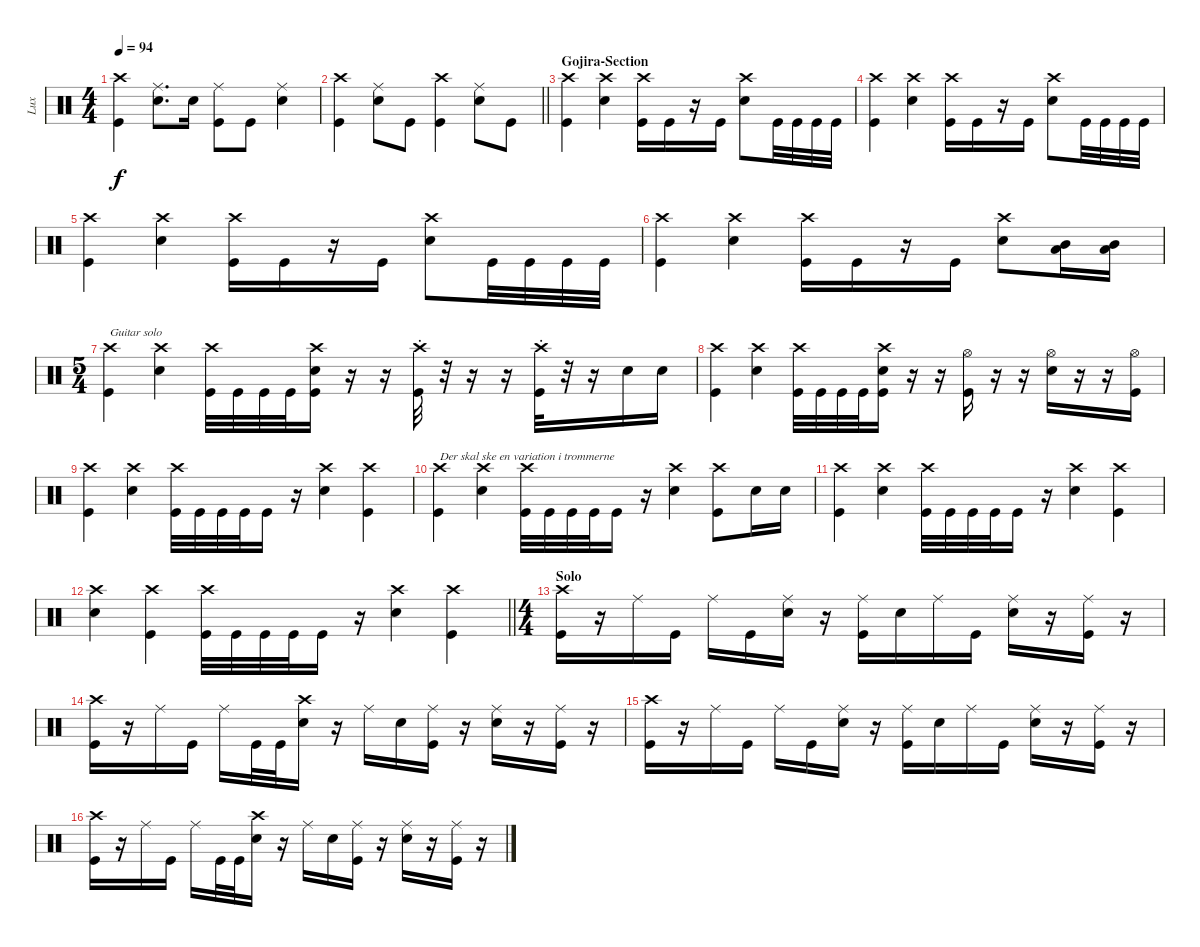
\track ("Lux" "Lux") {instrument percussion}
\staff {score}
\articulation defaults
\ts (4 4)
\tempo 94
\clef neutral
\ks c
("Crash high (hit)" "Kick (hit)").4{dy f} ("Ride (middle)" "Snare (hit) 2").8{d} "Snare (hit) 2".16 ("Ride (middle)" "Kick (hit)").8 "Kick (hit)".8 ("Ride (middle)" "Snare (hit) 2").4 |
\barLineRight lightlight
("Crash high (hit)" "Kick (hit)").4 ("Ride (middle)" "Snare (hit) 2").8 "Kick (hit)".8 ("Crash high (hit)" "Kick (hit)").4 ("Ride (middle)" "Snare (hit) 2").8 "Kick (hit)".8 |
\section ("" "Gojira-Section")
("Crash high (hit)" "Kick (hit)").4 ("Crash high (hit)" "Snare (hit) 2").4 ("Crash high (hit)" "Kick (hit)").16 "Kick (hit)".16 r.16 "Kick (hit)".16 ("Crash high (hit)" "Snare (hit) 2").8 "Kick (hit)".32 "Kick (hit)".32 "Kick (hit)".32 "Kick (hit)".32 |
("Crash high (hit)" "Kick (hit)").4 ("Crash high (hit)" "Snare (hit) 2").4 ("Crash high (hit)" "Kick (hit)").16 "Kick (hit)".16 r.16 "Kick (hit)".16 ("Crash high (hit)" "Snare (hit) 2").8 "Kick (hit)".32 "Kick (hit)".32 "Kick (hit)".32 "Kick (hit)".32 |
("Crash high (hit)" "Kick (hit)").4 ("Crash high (hit)" "Snare (hit) 2").4 ("Crash high (hit)" "Kick (hit)").16 "Kick (hit)".16 r.16 "Kick (hit)".16 ("Crash high (hit)" "Snare (hit) 2").8 "Kick (hit)".32 "Kick (hit)".32 "Kick (hit)".32 "Kick (hit)".32 |
("Crash high (hit)" "Kick (hit)").4 ("Crash high (hit)" "Snare (hit) 2").4 ("Crash high (hit)" "Kick (hit)").16 "Kick (hit)".16 r.16 "Kick (hit)".16 ("Crash high (hit)" "Snare (hit) 2").8 ("Mid Tom (hit)" "Low Tom (hit)").16 ("Mid Tom (hit)" "Low Tom (hit)").16 |
\ts (5 4)
("Crash high (hit)" "Kick (hit)").4{txt "Guitar solo"} ("Crash high (hit)" "Snare (hit) 2").4 ("Crash high (hit)" "Kick (hit)").32 "Kick (hit)".32 "Kick (hit)".32 "Kick (hit)".32 ("Crash high (hit)" "Snare (hit) 2" "Kick (hit)").16 r.16 r.16 ("Crash high (hit)"{st} "Kick (hit)").32 r.32 r.16 r.16 ("Crash high (hit)"{st} "Kick (hit)").32 r.32 r.16 "Snare (hit) 2".16 "Snare (hit) 2".16 |
("Crash high (hit)" "Kick (hit)").4 ("Crash high (hit)" "Snare (hit) 2").4 ("Crash high (hit)" "Kick (hit)").32 "Kick (hit)".32 "Kick (hit)".32 "Kick (hit)".32 ("Crash high (hit)" "Snare (hit) 2" "Kick (hit)").16 r.16 r.16 ("Hi-Hat (open)" "Kick (hit)").16 r.16 r.16 ("Hi-Hat (open)" "Snare (hit) 2").16 r.16 r.16 ("Hi-Hat (open)" "Kick (hit)").16 |
("Crash high (hit)" "Kick (hit)").4 ("Crash high (hit)" "Snare (hit) 2").4 ("Crash high (hit)" "Kick (hit)").32 "Kick (hit)".32 "Kick (hit)".32 "Kick (hit)".32 "Kick (hit)".16 r.16 ("Crash high (hit)" "Snare (hit) 2").4 ("Crash high (hit)" "Kick (hit)").4 |
("Crash high (hit)" "Kick (hit)").4{txt "Der skal ske en variation i trommerne"} ("Crash high (hit)" "Snare (hit) 2").4 ("Crash high (hit)" "Kick (hit)").32 "Kick (hit)".32 "Kick (hit)".32 "Kick (hit)".32 "Kick (hit)".16 r.16 ("Crash high (hit)" "Snare (hit) 2").4 ("Crash high (hit)" "Kick (hit)").8 "Snare (hit) 2".16 "Snare (hit) 2".16 |
("Crash high (hit)" "Kick (hit)").4 ("Crash high (hit)" "Snare (hit) 2").4 ("Crash high (hit)" "Kick (hit)").32 "Kick (hit)".32 "Kick (hit)".32 "Kick (hit)".32 "Kick (hit)".16 r.16 ("Crash high (hit)" "Snare (hit) 2").4 ("Crash high (hit)" "Kick (hit)").4 |
\barLineRight lightlight
("Crash high (hit)" "Snare (hit) 2").4 ("Crash high (hit)" "Kick (hit)").4 ("Crash high (hit)" "Kick (hit)").32 "Kick (hit)".32 "Kick (hit)".32 "Kick (hit)".32 "Kick (hit)".16 r.16 ("Crash high (hit)" "Snare (hit) 2").4 ("Crash high (hit)" "Kick (hit)").4 |
\ts (4 4)
\section ("" "Solo")
("Crash high (hit)" "Kick (hit)").16 r.16 "Ride (middle)".16 "Kick (hit)".16 "Ride (middle)".16 "Kick (hit)".16 ("Ride (middle)" "Snare (hit) 2").16 r.16 ("Ride (middle)" "Kick (hit)").16 "Snare (hit) 2".16 "Ride (middle)".16 "Kick (hit)".16 ("Ride (middle)" "Snare (hit) 2").16 r.16 ("Ride (middle)" "Kick (hit)").16 r.16 |
("Crash high (hit)" "Kick (hit)").16 r.16 "Ride (middle)".16 "Kick (hit)".16 "Ride (middle)".16 "Kick (hit)".32 "Kick (hit)".32 ("Crash high (hit)" "Snare (hit) 2").16 r.16 "Ride (middle)".16 "Snare (hit) 2".16 ("Ride (middle)" "Kick (hit)").16 r.16 ("Ride (middle)" "Snare (hit) 2").16 r.16 ("Ride (middle)" "Kick (hit)").16 r.16 |
("Crash high (hit)" "Kick (hit)").16 r.16 "Ride (middle)".16 "Kick (hit)".16 "Ride (middle)".16 "Kick (hit)".16 ("Ride (middle)" "Snare (hit) 2").16 r.16 ("Ride (middle)" "Kick (hit)").16 "Snare (hit) 2".16 "Ride (middle)".16 "Kick (hit)".16 ("Ride (middle)" "Snare (hit) 2").16 r.16 ("Ride (middle)" "Kick (hit)").16 r.16 |
("Crash high (hit)" "Kick (hit)").16 r.16 "Ride (middle)".16 "Kick (hit)".16 "Ride (middle)".16 "Kick (hit)".32 "Kick (hit)".32 ("Crash high (hit)" "Snare (hit) 2").16 r.16 "Ride (middle)".16 "Snare (hit) 2".16 ("Ride (middle)" "Kick (hit)").16 r.16 ("Ride (middle)" "Snare (hit) 2").16 r.16 ("Ride (middle)" "Kick (hit)").16 r.16
